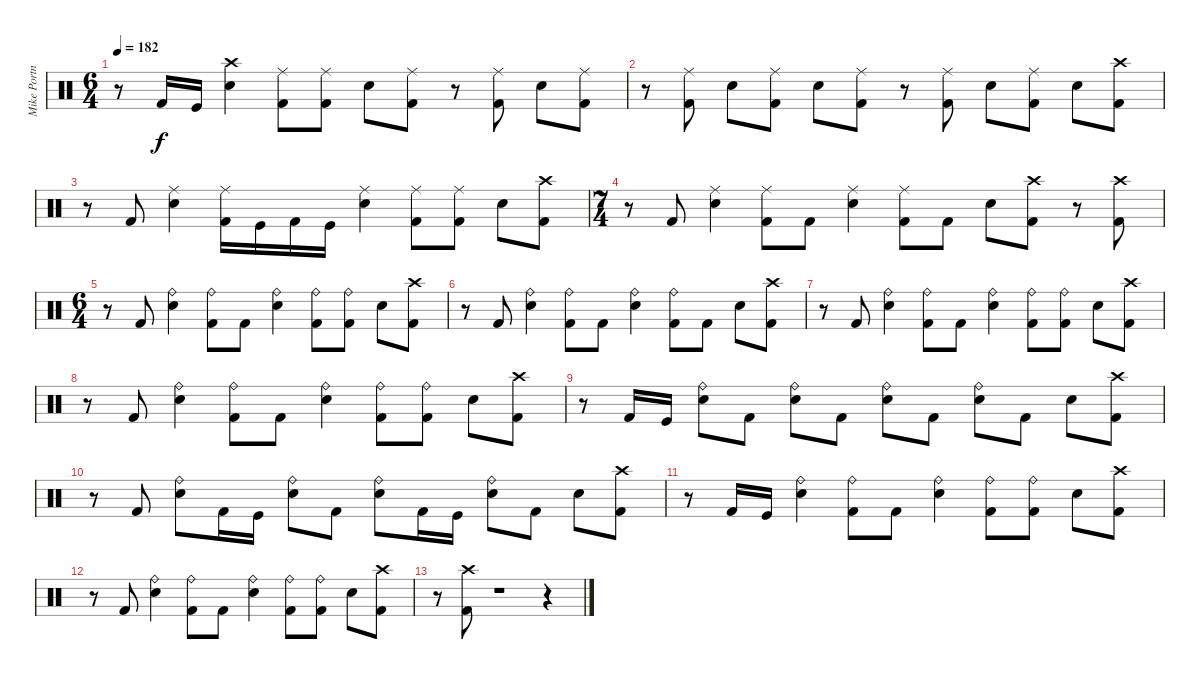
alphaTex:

\track ("Mike Portnoy" "Mike Portn") {instrument percussion}
\staff {score}
\articulation defaults
\ts (6 4)
\tempo 182
\clef neutral
\ks c
r.8{dy f} "Kick (hit) 2".16 "Kick (hit)".16 ("Crash high (hit)" "Electric Snare (hit)").4 ("Ride (middle)" "Kick (hit) 2").8 ("Ride (middle)" "Kick (hit) 2").8 "Electric Snare (hit)".8 ("Ride (middle)" "Kick (hit) 2").8 r.8 ("Ride (middle)" "Kick (hit) 2").8 "Electric Snare (hit)".8 ("Ride (middle)" "Kick (hit) 2").8 |
r.8 ("Ride (middle)" "Kick (hit) 2").8 "Electric Snare (hit)".8 ("Ride (middle)" "Kick (hit) 2").8 "Electric Snare (hit)".8 ("Ride (middle)" "Kick (hit) 2").8 r.8 ("Ride (middle)" "Kick (hit) 2").8 "Electric Snare (hit)".8 ("Ride (middle)" "Kick (hit) 2").8 "Electric Snare (hit)".8 ("Crash high (hit)" "Kick (hit) 2").8 |
r.8 "Kick (hit) 2".8 ("Ride (middle)" "Electric Snare (hit)").4 ("Ride (middle)" "Kick (hit) 2").16 "Kick (hit)".16 "Kick (hit) 2".16 "Kick (hit)".16 ("Ride (middle)" "Electric Snare (hit)").4 ("Ride (middle)" "Kick (hit) 2").8 ("Ride (middle)" "Kick (hit) 2").8 "Electric Snare (hit)".8 ("Crash high (hit)" "Kick (hit) 2").8 |
\ts (7 4)
r.8 "Kick (hit) 2".8 ("Ride (middle)" "Electric Snare (hit)").4 ("Ride (middle)" "Kick (hit) 2").8 "Kick (hit) 2".8 ("Ride (middle)" "Electric Snare (hit)").4 ("Ride (middle)" "Kick (hit) 2").8 "Kick (hit) 2".8 "Electric Snare (hit)".8 ("Crash high (hit)" "Kick (hit) 2").8 r.8 ("Crash high (hit)" "Kick (hit) 2").8 |
\ts (6 4)
r.8 "Kick (hit) 2".8 ("Ride (bell)" "Electric Snare (hit)").4 ("Ride (bell)" "Kick (hit) 2").8 "Kick (hit) 2".8 ("Ride (bell)" "Electric Snare (hit)").4 ("Ride (bell)" "Kick (hit) 2").8 ("Ride (bell)" "Kick (hit) 2").8 "Electric Snare (hit)".8 ("Crash high (hit)" "Kick (hit) 2").8 |
r.8 "Kick (hit) 2".8 ("Ride (bell)" "Electric Snare (hit)").4 ("Ride (bell)" "Kick (hit) 2").8 "Kick (hit) 2".8 ("Ride (bell)" "Electric Snare (hit)").4 ("Ride (bell)" "Kick (hit) 2").8 "Kick (hit) 2".8 "Electric Snare (hit)".8 ("Crash high (hit)" "Kick (hit) 2").8 |
r.8 "Kick (hit) 2".8 ("Ride (bell)" "Electric Snare (hit)").4 ("Ride (bell)" "Kick (hit) 2").8 "Kick (hit) 2".8 ("Ride (bell)" "Electric Snare (hit)").4 ("Ride (bell)" "Kick (hit) 2").8 ("Ride (bell)" "Kick (hit) 2").8 "Electric Snare (hit)".8 ("Crash high (hit)" "Kick (hit) 2").8 |
r.8 "Kick (hit) 2".8 ("Ride (bell)" "Electric Snare (hit)").4 ("Ride (bell)" "Kick (hit) 2").8 "Kick (hit) 2".8 ("Ride (bell)" "Electric Snare (hit)").4 ("Ride (bell)" "Kick (hit) 2").8 ("Ride (bell)" "Kick (hit) 2").8 "Electric Snare (hit)".8 ("Crash high (hit)" "Kick (hit) 2").8 |
r.8 "Kick (hit) 2".16 "Kick (hit)".16 ("Ride (bell)" "Electric Snare (hit)").8 "Kick (hit) 2".8 ("Ride (bell)" "Electric Snare (hit)").8 "Kick (hit) 2".8 ("Ride (bell)" "Electric Snare (hit)").8 "Kick (hit) 2".8 ("Ride (bell)" "Electric Snare (hit)").8 "Kick (hit) 2".8 "Electric Snare (hit)".8 ("Crash high (hit)" "Kick (hit) 2").8 |
r.8 "Kick (hit) 2".8 ("Ride (bell)" "Electric Snare (hit)").8 "Kick (hit) 2".16 "Kick (hit)".16 ("Ride (bell)" "Electric Snare (hit)").8 "Kick (hit) 2".8 ("Ride (bell)" "Electric Snare (hit)").8 "Kick (hit) 2".16 "Kick (hit)".16 ("Ride (bell)" "Electric Snare (hit)").8 "Kick (hit) 2".8 "Electric Snare (hit)".8 ("Crash high (hit)" "Kick (hit) 2").8 |
r.8 "Kick (hit) 2".16 "Kick (hit)".16 ("Ride (bell)" "Electric Snare (hit)").4 ("Ride (bell)" "Kick (hit) 2").8 "Kick (hit) 2".8 ("Ride (bell)" "Electric Snare (hit)").4 ("Ride (bell)" "Kick (hit) 2").8 ("Ride (bell)" "Kick (hit) 2").8 "Electric Snare (hit)".8 ("Crash high (hit)" "Kick (hit) 2").8 |
r.8 "Kick (hit) 2".8 ("Ride (bell)" "Electric Snare (hit)").4 ("Ride (bell)" "Kick (hit) 2").8 "Kick (hit) 2".8 ("Ride (bell)" "Electric Snare (hit)").4 ("Ride (bell)" "Kick (hit) 2").8 ("Ride (bell)" "Kick (hit) 2").8 "Electric Snare (hit)".8 ("Crash high (hit)" "Kick (hit) 2").8 |
r.8 ("Crash high (hit)" "Kick (hit) 2").8 r.1 r.4
